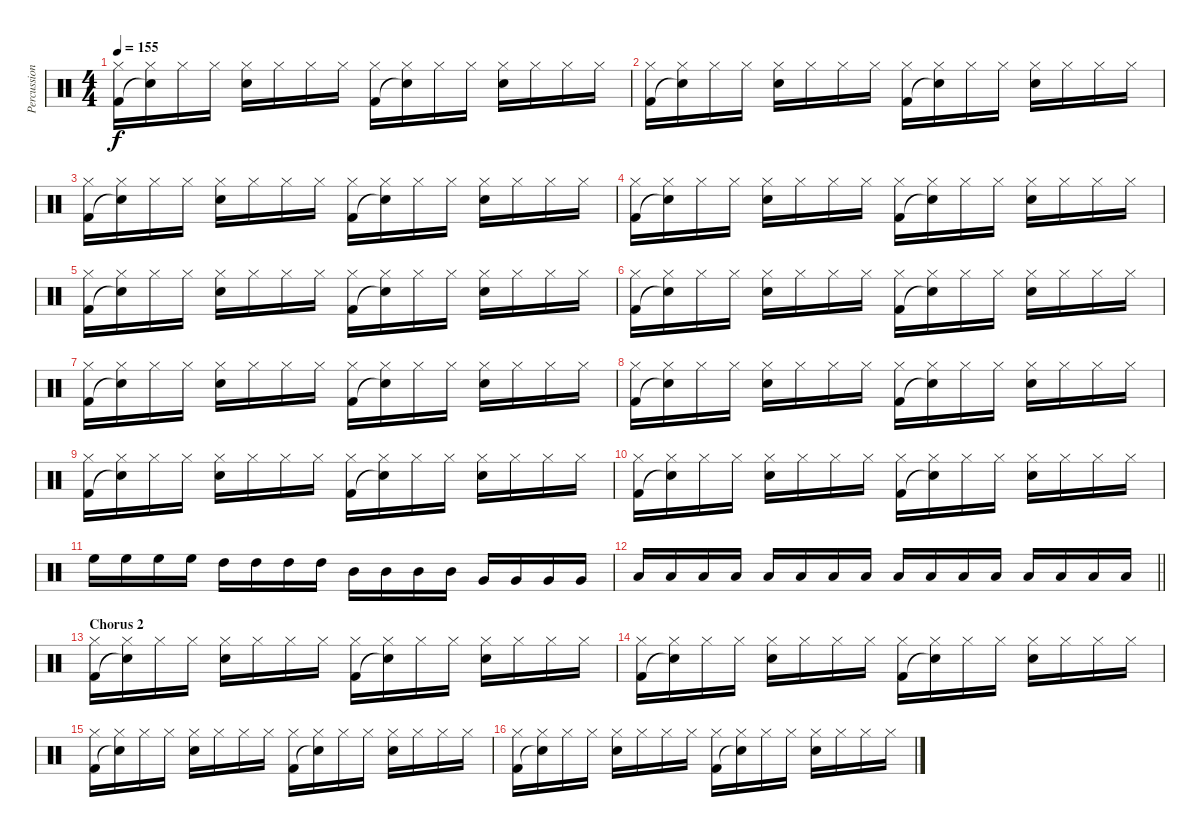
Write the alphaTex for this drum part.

\track ("Percussion" "Percussion") {instrument percussion}
\staff {score}
\articulation defaults
\ts (4 4)
\tempo 155
\clef neutral
\ks c
("Hi-Hat (closed)" "Kick (hit) 2").16{dy f} ("Hi-Hat (closed)" "Snare (hit)"{t}).16 "Hi-Hat (closed)".16 "Hi-Hat (closed)".16 ("Hi-Hat (closed)" "Snare (hit) 2").16 "Hi-Hat (closed)".16 "Hi-Hat (closed)".16 "Hi-Hat (closed)".16 ("Hi-Hat (closed)" "Kick (hit) 2").16 ("Hi-Hat (closed)" "Snare (hit)"{t}).16 "Hi-Hat (closed)".16 "Hi-Hat (closed)".16 ("Hi-Hat (closed)" "Snare (hit) 2").16 "Hi-Hat (closed)".16 "Hi-Hat (closed)".16 "Hi-Hat (closed)".16 |
("Hi-Hat (closed)" "Kick (hit) 2").16 ("Hi-Hat (closed)" "Snare (hit)"{t}).16 "Hi-Hat (closed)".16 "Hi-Hat (closed)".16 ("Hi-Hat (closed)" "Snare (hit) 2").16 "Hi-Hat (closed)".16 "Hi-Hat (closed)".16 "Hi-Hat (closed)".16 ("Hi-Hat (closed)" "Kick (hit) 2").16 ("Hi-Hat (closed)" "Snare (hit)"{t}).16 "Hi-Hat (closed)".16 "Hi-Hat (closed)".16 ("Hi-Hat (closed)" "Snare (hit) 2").16 "Hi-Hat (closed)".16 "Hi-Hat (closed)".16 "Hi-Hat (closed)".16 |
("Hi-Hat (closed)" "Kick (hit) 2").16 ("Hi-Hat (closed)" "Snare (hit)"{t}).16 "Hi-Hat (closed)".16 "Hi-Hat (closed)".16 ("Hi-Hat (closed)" "Snare (hit) 2").16 "Hi-Hat (closed)".16 "Hi-Hat (closed)".16 "Hi-Hat (closed)".16 ("Hi-Hat (closed)" "Kick (hit) 2").16 ("Hi-Hat (closed)" "Snare (hit)"{t}).16 "Hi-Hat (closed)".16 "Hi-Hat (closed)".16 ("Hi-Hat (closed)" "Snare (hit) 2").16 "Hi-Hat (closed)".16 "Hi-Hat (closed)".16 "Hi-Hat (closed)".16 |
("Hi-Hat (closed)" "Kick (hit) 2").16 ("Hi-Hat (closed)" "Snare (hit)"{t}).16 "Hi-Hat (closed)".16 "Hi-Hat (closed)".16 ("Hi-Hat (closed)" "Snare (hit) 2").16 "Hi-Hat (closed)".16 "Hi-Hat (closed)".16 "Hi-Hat (closed)".16 ("Hi-Hat (closed)" "Kick (hit) 2").16 ("Hi-Hat (closed)" "Snare (hit)"{t}).16 "Hi-Hat (closed)".16 "Hi-Hat (closed)".16 ("Hi-Hat (closed)" "Snare (hit) 2").16 "Hi-Hat (closed)".16 "Hi-Hat (closed)".16 "Hi-Hat (closed)".16 |
("Hi-Hat (closed)" "Kick (hit) 2").16 ("Hi-Hat (closed)" "Snare (hit)"{t}).16 "Hi-Hat (closed)".16 "Hi-Hat (closed)".16 ("Hi-Hat (closed)" "Snare (hit) 2").16 "Hi-Hat (closed)".16 "Hi-Hat (closed)".16 "Hi-Hat (closed)".16 ("Hi-Hat (closed)" "Kick (hit) 2").16 ("Hi-Hat (closed)" "Snare (hit)"{t}).16 "Hi-Hat (closed)".16 "Hi-Hat (closed)".16 ("Hi-Hat (closed)" "Snare (hit) 2").16 "Hi-Hat (closed)".16 "Hi-Hat (closed)".16 "Hi-Hat (closed)".16 |
("Hi-Hat (closed)" "Kick (hit) 2").16 ("Hi-Hat (closed)" "Snare (hit)"{t}).16 "Hi-Hat (closed)".16 "Hi-Hat (closed)".16 ("Hi-Hat (closed)" "Snare (hit) 2").16 "Hi-Hat (closed)".16 "Hi-Hat (closed)".16 "Hi-Hat (closed)".16 ("Hi-Hat (closed)" "Kick (hit) 2").16 ("Hi-Hat (closed)" "Snare (hit)"{t}).16 "Hi-Hat (closed)".16 "Hi-Hat (closed)".16 ("Hi-Hat (closed)" "Snare (hit) 2").16 "Hi-Hat (closed)".16 "Hi-Hat (closed)".16 "Hi-Hat (closed)".16 |
("Hi-Hat (closed)" "Kick (hit) 2").16 ("Hi-Hat (closed)" "Snare (hit)"{t}).16 "Hi-Hat (closed)".16 "Hi-Hat (closed)".16 ("Hi-Hat (closed)" "Snare (hit) 2").16 "Hi-Hat (closed)".16 "Hi-Hat (closed)".16 "Hi-Hat (closed)".16 ("Hi-Hat (closed)" "Kick (hit) 2").16 ("Hi-Hat (closed)" "Snare (hit)"{t}).16 "Hi-Hat (closed)".16 "Hi-Hat (closed)".16 ("Hi-Hat (closed)" "Snare (hit) 2").16 "Hi-Hat (closed)".16 "Hi-Hat (closed)".16 "Hi-Hat (closed)".16 |
("Hi-Hat (closed)" "Kick (hit) 2").16 ("Hi-Hat (closed)" "Snare (hit)"{t}).16 "Hi-Hat (closed)".16 "Hi-Hat (closed)".16 ("Hi-Hat (closed)" "Snare (hit) 2").16 "Hi-Hat (closed)".16 "Hi-Hat (closed)".16 "Hi-Hat (closed)".16 ("Hi-Hat (closed)" "Kick (hit) 2").16 ("Hi-Hat (closed)" "Snare (hit)"{t}).16 "Hi-Hat (closed)".16 "Hi-Hat (closed)".16 ("Hi-Hat (closed)" "Snare (hit) 2").16 "Hi-Hat (closed)".16 "Hi-Hat (closed)".16 "Hi-Hat (closed)".16 |
("Hi-Hat (closed)" "Kick (hit) 2").16 ("Hi-Hat (closed)" "Snare (hit)"{t}).16 "Hi-Hat (closed)".16 "Hi-Hat (closed)".16 ("Hi-Hat (closed)" "Snare (hit) 2").16 "Hi-Hat (closed)".16 "Hi-Hat (closed)".16 "Hi-Hat (closed)".16 ("Hi-Hat (closed)" "Kick (hit) 2").16 ("Hi-Hat (closed)" "Snare (hit)"{t}).16 "Hi-Hat (closed)".16 "Hi-Hat (closed)".16 ("Hi-Hat (closed)" "Snare (hit) 2").16 "Hi-Hat (closed)".16 "Hi-Hat (closed)".16 "Hi-Hat (closed)".16 |
("Hi-Hat (closed)" "Kick (hit) 2").16 ("Hi-Hat (closed)" "Snare (hit)"{t}).16 "Hi-Hat (closed)".16 "Hi-Hat (closed)".16 ("Hi-Hat (closed)" "Snare (hit) 2").16 "Hi-Hat (closed)".16 "Hi-Hat (closed)".16 "Hi-Hat (closed)".16 ("Hi-Hat (closed)" "Kick (hit) 2").16 ("Hi-Hat (closed)" "Snare (hit)"{t}).16 "Hi-Hat (closed)".16 "Hi-Hat (closed)".16 ("Hi-Hat (closed)" "Snare (hit) 2").16 "Hi-Hat (closed)".16 "Hi-Hat (closed)".16 "Hi-Hat (closed)".16 |
"High Floor Tom (hit)".16 "High Floor Tom (hit)".16 "High Floor Tom (hit)".16 "High Floor Tom (hit)".16 "High Tom (hit)".16 "High Tom (hit)".16 "High Tom (hit)".16 "High Tom (hit)".16 "Mid Tom (hit)".16 "Mid Tom (hit)".16 "Mid Tom (hit)".16 "Mid Tom (hit)".16 "Very Low Tom (hit)".16 "Very Low Tom (hit)".16 "Very Low Tom (hit)".16 "Very Low Tom (hit)".16 |
\barLineRight lightlight "Low Floor Tom (hit)".16 "Low Floor Tom (hit)".16 "Low Floor Tom (hit)".16 "Low Floor Tom (hit)".16 "Low Floor Tom (hit)".16 "Low Floor Tom (hit)".16 "Low Floor Tom (hit)".16 "Low Floor Tom (hit)".16 "Low Floor Tom (hit)".16 "Low Floor Tom (hit)".16 "Low Floor Tom (hit)".16 "Low Floor Tom (hit)".16 "Low Floor Tom (hit)".16 "Low Floor Tom (hit)".16 "Low Floor Tom (hit)".16 "Low Floor Tom (hit)".16
|
\section ("" "Chorus 2")
("Hi-Hat (closed)" "Kick (hit) 2").16 ("Hi-Hat (closed)" "Snare (hit)"{t}).16 "Hi-Hat (closed)".16 "Hi-Hat (closed)".16 ("Hi-Hat (closed)" "Snare (hit) 2").16 "Hi-Hat (closed)".16 "Hi-Hat (closed)".16 "Hi-Hat (closed)".16 ("Hi-Hat (closed)" "Kick (hit) 2").16 ("Hi-Hat (closed)" "Snare (hit)"{t}).16 "Hi-Hat (closed)".16 "Hi-Hat (closed)".16 ("Hi-Hat (closed)" "Snare (hit) 2").16 "Hi-Hat (closed)".16 "Hi-Hat (closed)".16 "Hi-Hat (closed)".16 |
("Hi-Hat (closed)" "Kick (hit) 2").16 ("Hi-Hat (closed)" "Snare (hit)"{t}).16 "Hi-Hat (closed)".16 "Hi-Hat (closed)".16 ("Hi-Hat (closed)" "Snare (hit) 2").16 "Hi-Hat (closed)".16 "Hi-Hat (closed)".16 "Hi-Hat (closed)".16 ("Hi-Hat (closed)" "Kick (hit) 2").16 ("Hi-Hat (closed)" "Snare (hit)"{t}).16 "Hi-Hat (closed)".16 "Hi-Hat (closed)".16 ("Hi-Hat (closed)" "Snare (hit) 2").16 "Hi-Hat (closed)".16 "Hi-Hat (closed)".16 "Hi-Hat (closed)".16 |
("Hi-Hat (closed)" "Kick (hit) 2").16 ("Hi-Hat (closed)" "Snare (hit)"{t}).16 "Hi-Hat (closed)".16 "Hi-Hat (closed)".16 ("Hi-Hat (closed)" "Snare (hit) 2").16 "Hi-Hat (closed)".16 "Hi-Hat (closed)".16 "Hi-Hat (closed)".16 ("Hi-Hat (closed)" "Kick (hit) 2").16 ("Hi-Hat (closed)" "Snare (hit)"{t}).16 "Hi-Hat (closed)".16 "Hi-Hat (closed)".16 ("Hi-Hat (closed)" "Snare (hit) 2").16 "Hi-Hat (closed)".16 "Hi-Hat (closed)".16 "Hi-Hat (closed)".16 |
("Hi-Hat (closed)" "Kick (hit) 2").16 ("Hi-Hat (closed)" "Snare (hit)"{t}).16 "Hi-Hat (closed)".16 "Hi-Hat (closed)".16 ("Hi-Hat (closed)" "Snare (hit) 2").16 "Hi-Hat (closed)".16 "Hi-Hat (closed)".16 "Hi-Hat (closed)".16 ("Hi-Hat (closed)" "Kick (hit) 2").16 ("Hi-Hat (closed)" "Snare (hit)"{t}).16 "Hi-Hat (closed)".16 "Hi-Hat (closed)".16 ("Hi-Hat (closed)" "Snare (hit) 2").16 "Hi-Hat (closed)".16 "Hi-Hat (closed)".16 "Hi-Hat (closed)".16
